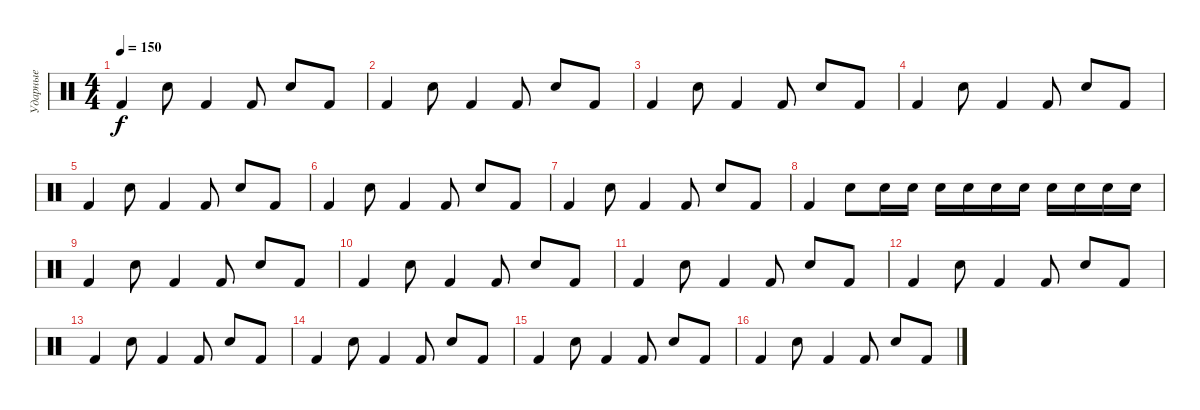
\track ("Ударные" "Ударные") {instrument percussion}
\staff {score}
\articulation defaults
\ts (4 4)
\tempo 150
\clef neutral
\ks c "Kick (hit) 2".4{dy f} "Snare (hit) 2".8 "Kick (hit) 2".4 "Kick (hit) 2".8 "Snare (hit) 2".8 "Kick (hit) 2".8
|
"Kick (hit) 2".4 "Snare (hit) 2".8 "Kick (hit) 2".4 "Kick (hit) 2".8 "Snare (hit) 2".8 "Kick (hit) 2".8 |
"Kick (hit) 2".4 "Snare (hit) 2".8 "Kick (hit) 2".4 "Kick (hit) 2".8 "Snare (hit) 2".8 "Kick (hit) 2".8 |
"Kick (hit) 2".4 "Snare (hit) 2".8 "Kick (hit) 2".4 "Kick (hit) 2".8 "Snare (hit) 2".8 "Kick (hit) 2".8 |
"Kick (hit) 2".4 "Snare (hit) 2".8 "Kick (hit) 2".4 "Kick (hit) 2".8 "Snare (hit) 2".8 "Kick (hit) 2".8 |
"Kick (hit) 2".4 "Snare (hit) 2".8 "Kick (hit) 2".4 "Kick (hit) 2".8 "Snare (hit) 2".8 "Kick (hit) 2".8 |
"Kick (hit) 2".4 "Snare (hit) 2".8 "Kick (hit) 2".4 "Kick (hit) 2".8 "Snare (hit) 2".8 "Kick (hit) 2".8 |
"Kick (hit) 2".4 "Snare (hit) 2".8 "Snare (hit) 2".16 "Snare (hit) 2".16 "Snare (hit) 2".16 "Snare (hit) 2".16 "Snare (hit) 2".16 "Snare (hit) 2".16 "Snare (hit) 2".16 "Snare (hit) 2".16 "Snare (hit) 2".16 "Snare (hit) 2".16 |
"Kick (hit) 2".4 "Snare (hit) 2".8 "Kick (hit) 2".4 "Kick (hit) 2".8 "Snare (hit) 2".8 "Kick (hit) 2".8 |
"Kick (hit) 2".4 "Snare (hit) 2".8 "Kick (hit) 2".4 "Kick (hit) 2".8 "Snare (hit) 2".8 "Kick (hit) 2".8 |
"Kick (hit) 2".4 "Snare (hit) 2".8 "Kick (hit) 2".4 "Kick (hit) 2".8 "Snare (hit) 2".8 "Kick (hit) 2".8 |
"Kick (hit) 2".4 "Snare (hit) 2".8 "Kick (hit) 2".4 "Kick (hit) 2".8 "Snare (hit) 2".8 "Kick (hit) 2".8 |
"Kick (hit) 2".4 "Snare (hit) 2".8 "Kick (hit) 2".4 "Kick (hit) 2".8 "Snare (hit) 2".8 "Kick (hit) 2".8 |
"Kick (hit) 2".4 "Snare (hit) 2".8 "Kick (hit) 2".4 "Kick (hit) 2".8 "Snare (hit) 2".8 "Kick (hit) 2".8 |
"Kick (hit) 2".4 "Snare (hit) 2".8 "Kick (hit) 2".4 "Kick (hit) 2".8 "Snare (hit) 2".8 "Kick (hit) 2".8 |
"Kick (hit) 2".4 "Snare (hit) 2".8 "Kick (hit) 2".4 "Kick (hit) 2".8 "Snare (hit) 2".8 "Kick (hit) 2".8
